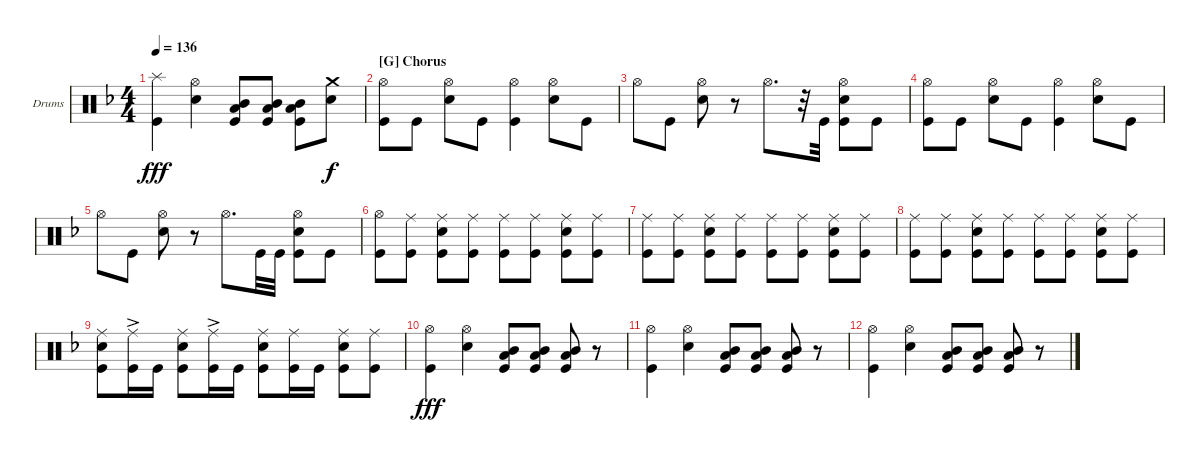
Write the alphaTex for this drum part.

\defaultSystemsLayout 4
\bracketExtendMode groupsimilarinstruments
\firstSystemTrackNameOrientation horizontal
\otherSystemsTrackNameOrientation horizontal
\track ("Drumkit" "Drums") {instrument percussion}
\staff {score}
\articulation defaults
\ts (4 4)
\tempo 136
\clef neutral
\scale
0.958386
\ks f
("Kick (hit)" "Splash (hit)").4{dy fff} ("Snare (hit) 2" "Hi-Hat (open)").4 ("Kick (hit)" "Low Tom (hit)" "Mid Tom (hit)").8 ("Kick (hit)" "Low Tom (hit)" "Mid Tom (hit)").8 ("Kick (hit)" "Low Tom (hit)" "Mid Tom (hit)").8 ("Crash medium (hit)" "Snare (hit) 2").8{dy f} |
\section ("G" "Chorus")
\scale
0.958386 ("Hi-Hat (open)" "Kick (hit)").8 "Kick (hit)".8 ("Hi-Hat (open)" "Snare (hit) 2").8 "Kick (hit)".8 ("Hi-Hat (open)" "Kick (hit)").4 ("Hi-Hat (open)" "Snare (hit) 2").8 "Kick (hit)".8 |
\scale
1.08323 "Hi-Hat (open)".8 "Kick (hit)".8 ("Hi-Hat (open)" "Snare (hit) 2").8 r.8 "Hi-Hat (open)".8{d} r.32 "Kick (hit)".32 ("Hi-Hat (open)" "Snare (hit) 2" "Kick (hit)").8 "Kick (hit)".8 |
\scale
0.958386 ("Hi-Hat (open)" "Kick (hit)").8 "Kick (hit)".8 ("Hi-Hat (open)" "Snare (hit) 2").8 "Kick (hit)".8 ("Hi-Hat (open)" "Kick (hit)").4 ("Hi-Hat (open)" "Snare (hit) 2").8 "Kick (hit)".8 |
\scale
0.958386 "Hi-Hat (open)".8 "Kick (hit)".8 ("Hi-Hat (open)" "Snare (hit) 2").8 r.8 "Hi-Hat (open)".8{d} "Kick (hit)".32 "Kick (hit)".32 ("Hi-Hat (open)" "Snare (hit) 2" "Kick (hit)").8 "Kick (hit)".8 |
\scale
1.08323 ("Hi-Hat (open)" "Kick (hit)").8 ("Ride (middle)" "Kick (hit)").8 ("Ride (middle)" "Kick (hit)" "Snare (hit) 2").8 ("Ride (middle)" "Kick (hit)").8 ("Ride (middle)" "Kick (hit)").8 ("Ride (middle)" "Kick (hit)").8 ("Ride (middle)" "Kick (hit)" "Snare (hit) 2").8 ("Ride (middle)" "Kick (hit)").8 |
\scale
0.958386 ("Ride (middle)" "Kick (hit)").8 ("Ride (middle)" "Kick (hit)").8 ("Ride (middle)" "Kick (hit)" "Snare (hit) 2").8 ("Ride (middle)" "Kick (hit)").8 ("Ride (middle)" "Kick (hit)").8 ("Ride (middle)" "Kick (hit)").8 ("Ride (middle)" "Kick (hit)" "Snare (hit) 2").8 ("Ride (middle)" "Kick (hit)").8 |
\scale
0.958386 ("Ride (middle)" "Kick (hit)").8 ("Ride (middle)" "Kick (hit)").8 ("Ride (middle)" "Kick (hit)" "Snare (hit) 2").8 ("Ride (middle)" "Kick (hit)").8 ("Ride (middle)" "Kick (hit)").8 ("Ride (middle)" "Kick (hit)").8 ("Ride (middle)" "Kick (hit)" "Snare (hit) 2").8 ("Ride (middle)" "Kick (hit)").8 |
\scale
1.08323 ("Ride (middle)" "Snare (hit) 2" "Kick (hit)").8 ("Ride (middle)"{ac} "Kick (hit)").16 "Kick (hit)".16 ("Ride (middle)" "Snare (hit) 2" "Kick (hit)").8 ("Ride (middle)"{ac} "Kick (hit)").16 "Kick (hit)".16 ("Ride (middle)" "Snare (hit) 2" "Kick (hit)").8 ("Ride (middle)" "Kick (hit)").16 "Kick (hit)".16 ("Ride (middle)" "Kick (hit)" "Snare (hit) 2").8 ("Ride (middle)" "Kick (hit)").8 |
\scale
0.958386 ("Kick (hit)" "Hi-Hat (open)").4{dy fff} ("Snare (hit) 2" "Hi-Hat (open)").4 ("Kick (hit)" "Low Tom (hit)" "Mid Tom (hit)").8 ("Kick (hit)" "Low Tom (hit)" "Mid Tom (hit)").8 ("Kick (hit)" "Low Tom (hit)" "Mid Tom (hit)").8 r.8 |
\scale
0.958386 ("Kick (hit)" "Hi-Hat (open)").4 ("Snare (hit) 2" "Hi-Hat (open)").4 ("Kick (hit)" "Low Tom (hit)" "Mid Tom (hit)").8 ("Kick (hit)" "Low Tom (hit)" "Mid Tom (hit)").8 ("Kick (hit)" "Low Tom (hit)" "Mid Tom (hit)").8 r.8 |
("Kick (hit)" "Hi-Hat (open)").4 ("Snare (hit) 2" "Hi-Hat (open)").4 ("Kick (hit)" "Low Tom (hit)" "Mid Tom (hit)").8 ("Kick (hit)" "Low Tom (hit)" "Mid Tom (hit)").8 ("Kick (hit)" "Low Tom (hit)" "Mid Tom (hit)").8 r.8
